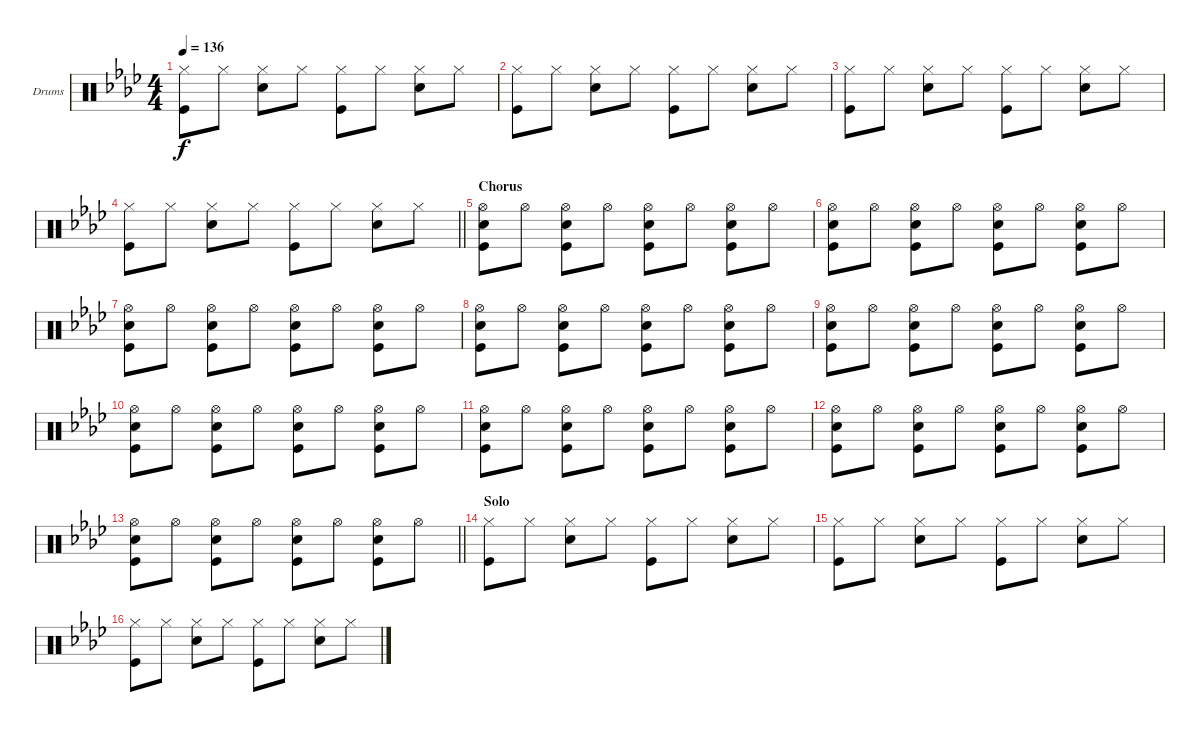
\bracketExtendMode groupsimilarinstruments
\firstSystemTrackNameOrientation horizontal
\otherSystemsTrackNameOrientation horizontal
\track ("Fabrizio" "Drums") {instrument percussion}
\staff {score}
\articulation defaults
\ts (4 4)
\tempo 136
\clef neutral
\ks ab
("Hi-Hat (closed)" "Kick (hit)").8{dy f} "Hi-Hat (closed)".8 ("Hi-Hat (closed)" "Snare (hit) 2").8 "Hi-Hat (closed)".8 ("Hi-Hat (closed)" "Kick (hit)").8 "Hi-Hat (closed)".8 ("Hi-Hat (closed)" "Snare (hit) 2").8 "Hi-Hat (closed)".8 |
("Hi-Hat (closed)" "Kick (hit)").8 "Hi-Hat (closed)".8 ("Hi-Hat (closed)" "Snare (hit) 2").8 "Hi-Hat (closed)".8 ("Hi-Hat (closed)" "Kick (hit)").8 "Hi-Hat (closed)".8 ("Hi-Hat (closed)" "Snare (hit) 2").8 "Hi-Hat (closed)".8 |
("Hi-Hat (closed)" "Kick (hit)").8 "Hi-Hat (closed)".8 ("Hi-Hat (closed)" "Snare (hit) 2").8 "Hi-Hat (closed)".8 ("Hi-Hat (closed)" "Kick (hit)").8 "Hi-Hat (closed)".8 ("Hi-Hat (closed)" "Snare (hit) 2").8 "Hi-Hat (closed)".8 |
\barLineRight lightlight
("Hi-Hat (closed)" "Kick (hit)").8 "Hi-Hat (closed)".8 ("Hi-Hat (closed)" "Snare (hit) 2").8 "Hi-Hat (closed)".8 ("Hi-Hat (closed)" "Kick (hit)").8 "Hi-Hat (closed)".8 ("Hi-Hat (closed)" "Snare (hit) 2").8 "Hi-Hat (closed)".8 |
\section ("" "Chorus")
("Hi-Hat (open)" "Snare (hit) 2" "Kick (hit)").8 "Hi-Hat (open)".8 ("Hi-Hat (open)" "Snare (hit) 2" "Kick (hit)").8 "Hi-Hat (open)".8 ("Hi-Hat (open)" "Snare (hit) 2" "Kick (hit)").8 "Hi-Hat (open)".8 ("Hi-Hat (open)" "Snare (hit) 2" "Kick (hit)").8 "Hi-Hat (open)".8 |
("Hi-Hat (open)" "Snare (hit) 2" "Kick (hit)").8 "Hi-Hat (open)".8 ("Hi-Hat (open)" "Snare (hit) 2" "Kick (hit)").8 "Hi-Hat (open)".8 ("Hi-Hat (open)" "Snare (hit) 2" "Kick (hit)").8 "Hi-Hat (open)".8 ("Hi-Hat (open)" "Snare (hit) 2" "Kick (hit)").8 "Hi-Hat (open)".8 |
("Hi-Hat (open)" "Snare (hit) 2" "Kick (hit)").8 "Hi-Hat (open)".8 ("Hi-Hat (open)" "Snare (hit) 2" "Kick (hit)").8 "Hi-Hat (open)".8 ("Hi-Hat (open)" "Snare (hit) 2" "Kick (hit)").8 "Hi-Hat (open)".8 ("Hi-Hat (open)" "Snare (hit) 2" "Kick (hit)").8 "Hi-Hat (open)".8 |
("Hi-Hat (open)" "Snare (hit) 2" "Kick (hit)").8 "Hi-Hat (open)".8 ("Hi-Hat (open)" "Snare (hit) 2" "Kick (hit)").8 "Hi-Hat (open)".8 ("Hi-Hat (open)" "Snare (hit) 2" "Kick (hit)").8 "Hi-Hat (open)".8 ("Hi-Hat (open)" "Snare (hit) 2" "Kick (hit)").8 "Hi-Hat (open)".8 |
("Hi-Hat (open)" "Snare (hit) 2" "Kick (hit)").8 "Hi-Hat (open)".8 ("Hi-Hat (open)" "Snare (hit) 2" "Kick (hit)").8 "Hi-Hat (open)".8 ("Hi-Hat (open)" "Snare (hit) 2" "Kick (hit)").8 "Hi-Hat (open)".8 ("Hi-Hat (open)" "Snare (hit) 2" "Kick (hit)").8 "Hi-Hat (open)".8 |
("Hi-Hat (open)" "Snare (hit) 2" "Kick (hit)").8 "Hi-Hat (open)".8 ("Hi-Hat (open)" "Snare (hit) 2" "Kick (hit)").8 "Hi-Hat (open)".8 ("Hi-Hat (open)" "Snare (hit) 2" "Kick (hit)").8 "Hi-Hat (open)".8 ("Hi-Hat (open)" "Snare (hit) 2" "Kick (hit)").8 "Hi-Hat (open)".8 |
("Hi-Hat (open)" "Snare (hit) 2" "Kick (hit)").8 "Hi-Hat (open)".8 ("Hi-Hat (open)" "Snare (hit) 2" "Kick (hit)").8 "Hi-Hat (open)".8 ("Hi-Hat (open)" "Snare (hit) 2" "Kick (hit)").8 "Hi-Hat (open)".8 ("Hi-Hat (open)" "Snare (hit) 2" "Kick (hit)").8 "Hi-Hat (open)".8 |
("Hi-Hat (open)" "Snare (hit) 2" "Kick (hit)").8 "Hi-Hat (open)".8 ("Hi-Hat (open)" "Snare (hit) 2" "Kick (hit)").8 "Hi-Hat (open)".8 ("Hi-Hat (open)" "Snare (hit) 2" "Kick (hit)").8 "Hi-Hat (open)".8 ("Hi-Hat (open)" "Snare (hit) 2" "Kick (hit)").8 "Hi-Hat (open)".8 |
\barLineRight lightlight
("Hi-Hat (open)" "Snare (hit) 2" "Kick (hit)").8 "Hi-Hat (open)".8 ("Hi-Hat (open)" "Snare (hit) 2" "Kick (hit)").8 "Hi-Hat (open)".8 ("Hi-Hat (open)" "Snare (hit) 2" "Kick (hit)").8 "Hi-Hat (open)".8 ("Hi-Hat (open)" "Snare (hit) 2" "Kick (hit)").8 "Hi-Hat (open)".8 |
\section ("" "Solo")
("Hi-Hat (closed)" "Kick (hit)").8 "Hi-Hat (closed)".8 ("Hi-Hat (closed)" "Snare (hit) 2").8 "Hi-Hat (closed)".8 ("Hi-Hat (closed)" "Kick (hit)").8 "Hi-Hat (closed)".8 ("Hi-Hat (closed)" "Snare (hit) 2").8 "Hi-Hat (closed)".8 |
("Hi-Hat (closed)" "Kick (hit)").8 "Hi-Hat (closed)".8 ("Hi-Hat (closed)" "Snare (hit) 2").8 "Hi-Hat (closed)".8 ("Hi-Hat (closed)" "Kick (hit)").8 "Hi-Hat (closed)".8 ("Hi-Hat (closed)" "Snare (hit) 2").8 "Hi-Hat (closed)".8 |
("Hi-Hat (closed)" "Kick (hit)").8 "Hi-Hat (closed)".8 ("Hi-Hat (closed)" "Snare (hit) 2").8 "Hi-Hat (closed)".8 ("Hi-Hat (closed)" "Kick (hit)").8 "Hi-Hat (closed)".8 ("Hi-Hat (closed)" "Snare (hit) 2").8 "Hi-Hat (closed)".8
